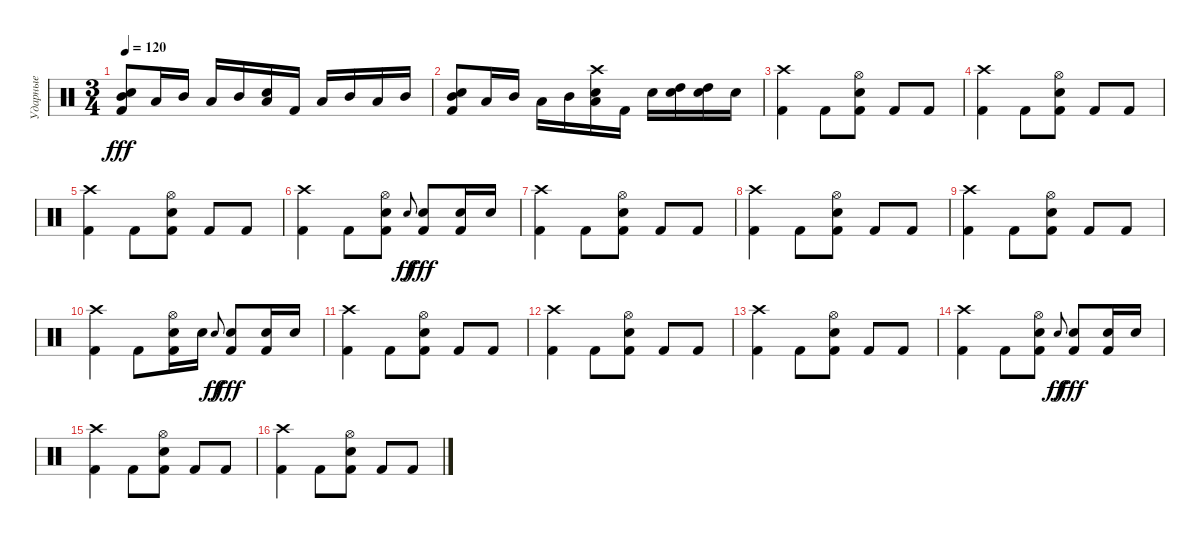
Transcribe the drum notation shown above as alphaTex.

\track ("Ударные" "Ударные") {instrument percussion}
\staff {score}
\articulation defaults
\ts (3 4)
\tempo 120
\clef neutral
\ks c
("Mid Tom (hit)" "Electric Snare (hit)" "Kick (hit) 2").8{dy fff} "Low Tom (hit)".16 "Mid Tom (hit)".16 "Low Tom (hit)".16 "Mid Tom (hit)".16 ("Low Tom (hit)" "Electric Snare (hit)").16 "Kick (hit) 2".16 "Low Tom (hit)".16 "Mid Tom (hit)".16 "Low Tom (hit)".16 "Mid Tom (hit)".16 |
("Mid Tom (hit)" "Electric Snare (hit)" "Kick (hit) 2").8 "Low Tom (hit)".16 "Mid Tom (hit)".16 "Low Tom (hit)".16 "Mid Tom (hit)".16 ("Crash high (hit)" "Low Tom (hit)" "Electric Snare (hit)").16 "Kick (hit) 2".16 "Electric Snare (hit)".16 ("Electric Snare (hit)" "High Tom (hit)").16 ("Electric Snare (hit)" "High Tom (hit)").16 "Electric Snare (hit)".16 |
("Crash high (hit)" "Kick (hit) 2").4 "Kick (hit) 2".8 ("Kick (hit) 2" "Electric Snare (hit)" "Hi-Hat (open)").8 "Kick (hit) 2".8 "Kick (hit) 2".8 |
("Crash high (hit)" "Kick (hit) 2").4 "Kick (hit) 2".8 ("Kick (hit) 2" "Electric Snare (hit)" "Hi-Hat (open)").8 "Kick (hit) 2".8 "Kick (hit) 2".8 |
("Crash high (hit)" "Kick (hit) 2").4 "Kick (hit) 2".8 ("Kick (hit) 2" "Electric Snare (hit)" "Hi-Hat (open)").8 "Kick (hit) 2".8 "Kick (hit) 2".8 |
("Crash high (hit)" "Kick (hit) 2").4 "Kick (hit) 2".8 ("Kick (hit) 2" "Electric Snare (hit)" "Hi-Hat (open)").8 "Electric Snare (hit)".8{gr onbeat dy ff} ("Kick (hit) 2" "Electric Snare (hit)").8{dy fff} ("Kick (hit) 2" "Electric Snare (hit)").16 "Electric Snare (hit)".16 |
("Crash high (hit)" "Kick (hit) 2").4 "Kick (hit) 2".8 ("Kick (hit) 2" "Electric Snare (hit)" "Hi-Hat (open)").8 "Kick (hit) 2".8 "Kick (hit) 2".8 |
("Crash high (hit)" "Kick (hit) 2").4 "Kick (hit) 2".8 ("Kick (hit) 2" "Electric Snare (hit)" "Hi-Hat (open)").8 "Kick (hit) 2".8 "Kick (hit) 2".8 |
("Crash high (hit)" "Kick (hit) 2").4 "Kick (hit) 2".8 ("Kick (hit) 2" "Electric Snare (hit)" "Hi-Hat (open)").8 "Kick (hit) 2".8 "Kick (hit) 2".8 |
("Crash high (hit)" "Kick (hit) 2").4 "Kick (hit) 2".8 ("Kick (hit) 2" "Electric Snare (hit)" "Hi-Hat (open)").16 "Electric Snare (hit)".16 "Electric Snare (hit)".8{gr onbeat dy ff} ("Kick (hit) 2" "Electric Snare (hit)").8{dy fff} ("Kick (hit) 2" "Electric Snare (hit)").16 "Electric Snare (hit)".16 |
("Crash high (hit)" "Kick (hit) 2").4 "Kick (hit) 2".8 ("Kick (hit) 2" "Electric Snare (hit)" "Hi-Hat (open)").8 "Kick (hit) 2".8 "Kick (hit) 2".8 |
("Crash high (hit)" "Kick (hit) 2").4 "Kick (hit) 2".8 ("Kick (hit) 2" "Electric Snare (hit)" "Hi-Hat (open)").8 "Kick (hit) 2".8 "Kick (hit) 2".8 |
("Crash high (hit)" "Kick (hit) 2").4 "Kick (hit) 2".8 ("Kick (hit) 2" "Electric Snare (hit)" "Hi-Hat (open)").8 "Kick (hit) 2".8 "Kick (hit) 2".8 |
("Crash high (hit)" "Kick (hit) 2").4 "Kick (hit) 2".8 ("Kick (hit) 2" "Electric Snare (hit)" "Hi-Hat (open)").8 "Electric Snare (hit)".8{gr onbeat dy ff} ("Kick (hit) 2" "Electric Snare (hit)").8{dy fff} ("Kick (hit) 2" "Electric Snare (hit)").16 "Electric Snare (hit)".16 |
("Crash high (hit)" "Kick (hit) 2").4 "Kick (hit) 2".8 ("Kick (hit) 2" "Electric Snare (hit)" "Hi-Hat (open)").8 "Kick (hit) 2".8 "Kick (hit) 2".8 |
("Crash high (hit)" "Kick (hit) 2").4 "Kick (hit) 2".8 ("Kick (hit) 2" "Electric Snare (hit)" "Hi-Hat (open)").8 "Kick (hit) 2".8 "Kick (hit) 2".8
